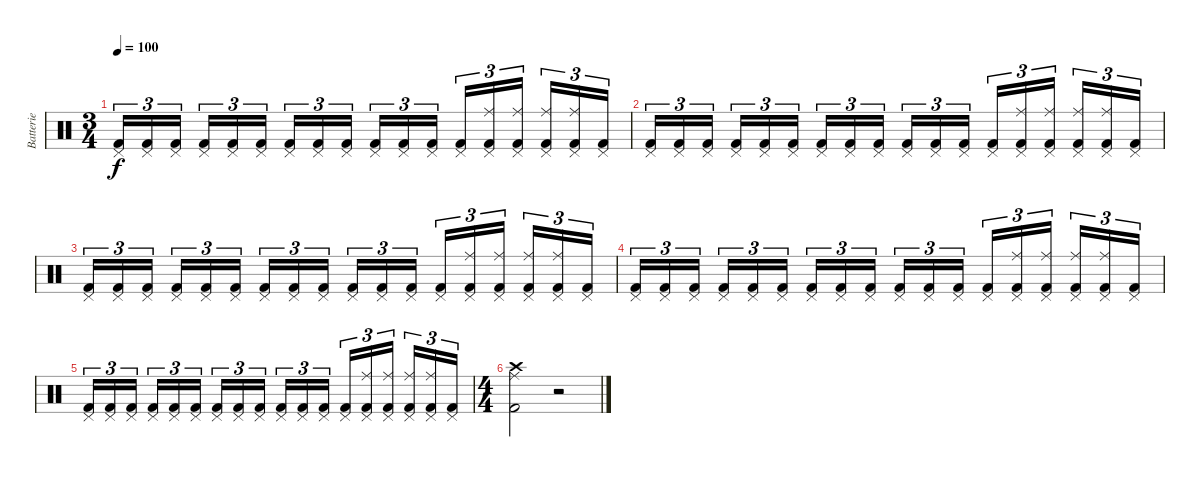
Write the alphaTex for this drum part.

\track ("Batterie" "Batterie") {instrument percussion}
\staff {score}
\articulation defaults
\ts (3 4)
\tempo 100
\clef neutral
\ks c
("Pedal Hi-Hat (hit)" "Kick (hit) 2").16{tu (3 2) dy f} ("Pedal Hi-Hat (hit)" "Kick (hit) 2").16{tu (3 2)} ("Pedal Hi-Hat (hit)" "Kick (hit) 2").16{tu (3 2)} ("Pedal Hi-Hat (hit)" "Kick (hit) 2").16{tu (3 2)} ("Pedal Hi-Hat (hit)" "Kick (hit) 2").16{tu (3 2)} ("Pedal Hi-Hat (hit)" "Kick (hit) 2").16{tu (3 2)} ("Pedal Hi-Hat (hit)" "Kick (hit) 2").16{tu (3 2)} ("Pedal Hi-Hat (hit)" "Kick (hit) 2").16{tu (3 2)} ("Pedal Hi-Hat (hit)" "Kick (hit) 2").16{tu (3 2)} ("Pedal Hi-Hat (hit)" "Kick (hit) 2").16{tu (3 2)} ("Pedal Hi-Hat (hit)" "Kick (hit) 2").16{tu (3 2)} ("Pedal Hi-Hat (hit)" "Kick (hit) 2").16{tu (3 2)} ("Pedal Hi-Hat (hit)" "Kick (hit) 2").16{tu (3 2)} ("Pedal Hi-Hat (hit)" "Kick (hit) 2" "Ride (middle)").16{tu (3 2)} ("Pedal Hi-Hat (hit)" "Kick (hit) 2" "Ride (middle)").16{tu (3 2)} ("Pedal Hi-Hat (hit)" "Kick (hit) 2" "Ride (middle)").16{tu (3 2)} ("Pedal Hi-Hat (hit)" "Kick (hit) 2" "Ride (middle)").16{tu (3 2)} ("Pedal Hi-Hat (hit)" "Kick (hit) 2").16{tu (3 2)} |
("Pedal Hi-Hat (hit)" "Kick (hit) 2").16{tu (3 2)} ("Pedal Hi-Hat (hit)" "Kick (hit) 2").16{tu (3 2)} ("Pedal Hi-Hat (hit)" "Kick (hit) 2").16{tu (3 2)} ("Pedal Hi-Hat (hit)" "Kick (hit) 2").16{tu (3 2)} ("Pedal Hi-Hat (hit)" "Kick (hit) 2").16{tu (3 2)} ("Pedal Hi-Hat (hit)" "Kick (hit) 2").16{tu (3 2)} ("Pedal Hi-Hat (hit)" "Kick (hit) 2").16{tu (3 2)} ("Pedal Hi-Hat (hit)" "Kick (hit) 2").16{tu (3 2)} ("Pedal Hi-Hat (hit)" "Kick (hit) 2").16{tu (3 2)} ("Pedal Hi-Hat (hit)" "Kick (hit) 2").16{tu (3 2)} ("Pedal Hi-Hat (hit)" "Kick (hit) 2").16{tu (3 2)} ("Pedal Hi-Hat (hit)" "Kick (hit) 2").16{tu (3 2)} ("Pedal Hi-Hat (hit)" "Kick (hit) 2").16{tu (3 2)} ("Pedal Hi-Hat (hit)" "Kick (hit) 2" "Ride (middle)").16{tu (3 2)} ("Pedal Hi-Hat (hit)" "Kick (hit) 2" "Ride (middle)").16{tu (3 2)} ("Pedal Hi-Hat (hit)" "Kick (hit) 2" "Ride (middle)").16{tu (3 2)} ("Pedal Hi-Hat (hit)" "Kick (hit) 2" "Ride (middle)").16{tu (3 2)} ("Pedal Hi-Hat (hit)" "Kick (hit) 2").16{tu (3 2)} |
("Pedal Hi-Hat (hit)" "Kick (hit) 2").16{tu (3 2)} ("Pedal Hi-Hat (hit)" "Kick (hit) 2").16{tu (3 2)} ("Pedal Hi-Hat (hit)" "Kick (hit) 2").16{tu (3 2)} ("Pedal Hi-Hat (hit)" "Kick (hit) 2").16{tu (3 2)} ("Pedal Hi-Hat (hit)" "Kick (hit) 2").16{tu (3 2)} ("Pedal Hi-Hat (hit)" "Kick (hit) 2").16{tu (3 2)} ("Pedal Hi-Hat (hit)" "Kick (hit) 2").16{tu (3 2)} ("Pedal Hi-Hat (hit)" "Kick (hit) 2").16{tu (3 2)} ("Pedal Hi-Hat (hit)" "Kick (hit) 2").16{tu (3 2)} ("Pedal Hi-Hat (hit)" "Kick (hit) 2").16{tu (3 2)} ("Pedal Hi-Hat (hit)" "Kick (hit) 2").16{tu (3 2)} ("Pedal Hi-Hat (hit)" "Kick (hit) 2").16{tu (3 2)} ("Pedal Hi-Hat (hit)" "Kick (hit) 2").16{tu (3 2)} ("Pedal Hi-Hat (hit)" "Kick (hit) 2" "Ride (middle)").16{tu (3 2)} ("Pedal Hi-Hat (hit)" "Kick (hit) 2" "Ride (middle)").16{tu (3 2)} ("Pedal Hi-Hat (hit)" "Kick (hit) 2" "Ride (middle)").16{tu (3 2)} ("Pedal Hi-Hat (hit)" "Kick (hit) 2" "Ride (middle)").16{tu (3 2)} ("Pedal Hi-Hat (hit)" "Kick (hit) 2").16{tu (3 2)} |
("Pedal Hi-Hat (hit)" "Kick (hit) 2").16{tu (3 2)} ("Pedal Hi-Hat (hit)" "Kick (hit) 2").16{tu (3 2)} ("Pedal Hi-Hat (hit)" "Kick (hit) 2").16{tu (3 2)} ("Pedal Hi-Hat (hit)" "Kick (hit) 2").16{tu (3 2)} ("Pedal Hi-Hat (hit)" "Kick (hit) 2").16{tu (3 2)} ("Pedal Hi-Hat (hit)" "Kick (hit) 2").16{tu (3 2)} ("Pedal Hi-Hat (hit)" "Kick (hit) 2").16{tu (3 2)} ("Pedal Hi-Hat (hit)" "Kick (hit) 2").16{tu (3 2)} ("Pedal Hi-Hat (hit)" "Kick (hit) 2").16{tu (3 2)} ("Pedal Hi-Hat (hit)" "Kick (hit) 2").16{tu (3 2)} ("Pedal Hi-Hat (hit)" "Kick (hit) 2").16{tu (3 2)} ("Pedal Hi-Hat (hit)" "Kick (hit) 2").16{tu (3 2)} ("Pedal Hi-Hat (hit)" "Kick (hit) 2").16{tu (3 2)} ("Pedal Hi-Hat (hit)" "Kick (hit) 2" "Ride (middle)").16{tu (3 2)} ("Pedal Hi-Hat (hit)" "Kick (hit) 2" "Ride (middle)").16{tu (3 2)} ("Pedal Hi-Hat (hit)" "Kick (hit) 2" "Ride (middle)").16{tu (3 2)} ("Pedal Hi-Hat (hit)" "Kick (hit) 2" "Ride (middle)").16{tu (3 2)} ("Pedal Hi-Hat (hit)" "Kick (hit) 2").16{tu (3 2)} |
("Pedal Hi-Hat (hit)" "Kick (hit) 2").16{tu (3 2)} ("Pedal Hi-Hat (hit)" "Kick (hit) 2").16{tu (3 2)} ("Pedal Hi-Hat (hit)" "Kick (hit) 2").16{tu (3 2)} ("Pedal Hi-Hat (hit)" "Kick (hit) 2").16{tu (3 2)} ("Pedal Hi-Hat (hit)" "Kick (hit) 2").16{tu (3 2)} ("Pedal Hi-Hat (hit)" "Kick (hit) 2").16{tu (3 2)} ("Pedal Hi-Hat (hit)" "Kick (hit) 2").16{tu (3 2)} ("Pedal Hi-Hat (hit)" "Kick (hit) 2").16{tu (3 2)} ("Pedal Hi-Hat (hit)" "Kick (hit) 2").16{tu (3 2)} ("Pedal Hi-Hat (hit)" "Kick (hit) 2").16{tu (3 2)} ("Pedal Hi-Hat (hit)" "Kick (hit) 2").16{tu (3 2)} ("Pedal Hi-Hat (hit)" "Kick (hit) 2").16{tu (3 2)} ("Pedal Hi-Hat (hit)" "Kick (hit) 2").16{tu (3 2)} ("Pedal Hi-Hat (hit)" "Kick (hit) 2" "Ride (middle)").16{tu (3 2)} ("Pedal Hi-Hat (hit)" "Kick (hit) 2" "Ride (middle)").16{tu (3 2)} ("Pedal Hi-Hat (hit)" "Kick (hit) 2" "Ride (middle)").16{tu (3 2)} ("Pedal Hi-Hat (hit)" "Kick (hit) 2" "Ride (middle)").16{tu (3 2)} ("Pedal Hi-Hat (hit)" "Kick (hit) 2").16{tu (3 2)} |
\ts (4 4)
("Crash high (hit)" "Kick (hit) 2" "Ride (middle)").2 r.2
